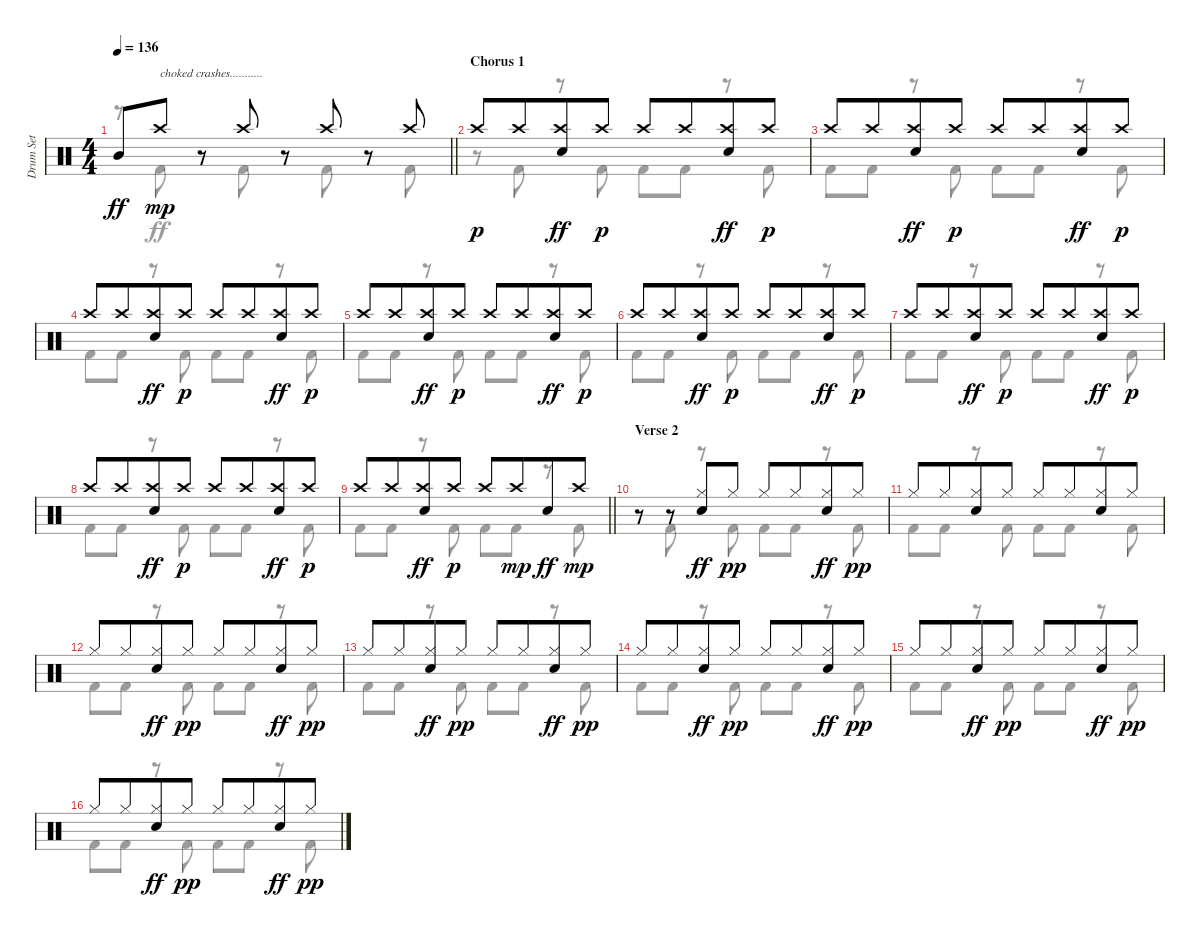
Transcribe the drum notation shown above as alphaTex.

\track ("Drum Set" "Drum Set") {instrument percussion}
\staff {score}
\articulation defaults
\voice
\ts (4 4)
\tempo 136
\clef neutral
\barLineRight lightlight
\ks c "Mid Tom (hit)".8{dy ff} "Crash high (hit)".8{txt "choked crashes..........." dy mp}
r.8 "Crash high (hit)".8 r.8 "Crash high (hit)".8 r.8 "Crash high (hit)".8 |
\section ("" "Chorus 1")
"Crash high (hit)".8{dy p} "Crash high (hit)".8{beam merge} ("Crash high (hit)" "Electric Snare (hit)").8{dy ff} "Crash high (hit)".8{dy p} "Crash high (hit)".8 "Crash high (hit)".8{beam merge} ("Crash high (hit)" "Electric Snare (hit)").8{dy ff} "Crash high (hit)".8{dy p} |
"Crash high (hit)".8 "Crash high (hit)".8{beam merge} ("Crash high (hit)" "Electric Snare (hit)").8{dy ff} "Crash high (hit)".8{dy p} "Crash high (hit)".8 "Crash high (hit)".8{beam merge} ("Crash high (hit)" "Electric Snare (hit)").8{dy ff} "Crash high (hit)".8{dy p} |
"Crash high (hit)".8 "Crash high (hit)".8{beam merge} ("Crash high (hit)" "Electric Snare (hit)").8{dy ff} "Crash high (hit)".8{dy p} "Crash high (hit)".8 "Crash high (hit)".8{beam merge} ("Crash high (hit)" "Electric Snare (hit)").8{dy ff} "Crash high (hit)".8{dy p} |
"Crash high (hit)".8 "Crash high (hit)".8{beam merge} ("Crash high (hit)" "Electric Snare (hit)").8{dy ff} "Crash high (hit)".8{dy p} "Crash high (hit)".8 "Crash high (hit)".8{beam merge} ("Crash high (hit)" "Electric Snare (hit)").8{dy ff} "Crash high (hit)".8{dy p} |
"Crash high (hit)".8 "Crash high (hit)".8{beam merge} ("Crash high (hit)" "Electric Snare (hit)").8{dy ff} "Crash high (hit)".8{dy p} "Crash high (hit)".8 "Crash high (hit)".8{beam merge} ("Crash high (hit)" "Electric Snare (hit)").8{dy ff} "Crash high (hit)".8{dy p} |
"Crash high (hit)".8 "Crash high (hit)".8{beam merge} ("Crash high (hit)" "Electric Snare (hit)").8{dy ff} "Crash high (hit)".8{dy p} "Crash high (hit)".8 "Crash high (hit)".8{beam merge} ("Crash high (hit)" "Electric Snare (hit)").8{dy ff} "Crash high (hit)".8{dy p} |
"Crash high (hit)".8 "Crash high (hit)".8{beam merge} ("Crash high (hit)" "Electric Snare (hit)").8{dy ff} "Crash high (hit)".8{dy p} "Crash high (hit)".8 "Crash high (hit)".8{beam merge} ("Crash high (hit)" "Electric Snare (hit)").8{dy ff} "Crash high (hit)".8{dy p} |
\barLineRight lightlight "Crash high (hit)".8 "Crash high (hit)".8{beam merge}
("Crash high (hit)" "Electric Snare (hit)").8{dy ff} "Crash high (hit)".8{dy p} "Crash high (hit)".8 "Crash high (hit)".8{dy mp beam merge} "Electric Snare (hit)".8{dy ff} "Crash high (hit)".8{dy mp} |
\section ("" "Verse 2")
r.8 r.8 ("Hi-Hat (closed)" "Electric Snare (hit)").8{dy ff} "Hi-Hat (closed)".8{dy pp} "Hi-Hat (closed)".8 "Hi-Hat (closed)".8{beam merge} ("Hi-Hat (closed)" "Electric Snare (hit)").8{dy ff} "Hi-Hat (closed)".8{dy pp} |
"Hi-Hat (closed)".8 "Hi-Hat (closed)".8{beam merge} ("Electric Snare (hit)" "Hi-Hat (closed)").8 "Hi-Hat (closed)".8 "Hi-Hat (closed)".8 "Hi-Hat (closed)".8{beam merge} ("Electric Snare (hit)" "Hi-Hat (closed)").8 "Hi-Hat (closed)".8 |
"Hi-Hat (closed)".8 "Hi-Hat (closed)".8{beam merge} ("Hi-Hat (closed)" "Electric Snare (hit)").8{dy ff} "Hi-Hat (closed)".8{dy pp} "Hi-Hat (closed)".8 "Hi-Hat (closed)".8{beam merge} ("Hi-Hat (closed)" "Electric Snare (hit)").8{dy ff} "Hi-Hat (closed)".8{dy pp} |
"Hi-Hat (closed)".8 "Hi-Hat (closed)".8{beam merge} ("Hi-Hat (closed)" "Electric Snare (hit)").8{dy ff} "Hi-Hat (closed)".8{dy pp} "Hi-Hat (closed)".8 "Hi-Hat (closed)".8{beam merge} ("Hi-Hat (closed)" "Electric Snare (hit)").8{dy ff} "Hi-Hat (closed)".8{dy pp} |
"Hi-Hat (closed)".8 "Hi-Hat (closed)".8{beam merge} ("Hi-Hat (closed)" "Electric Snare (hit)").8{dy ff} "Hi-Hat (closed)".8{dy pp} "Hi-Hat (closed)".8 "Hi-Hat (closed)".8{beam merge} ("Hi-Hat (closed)" "Electric Snare (hit)").8{dy ff} "Hi-Hat (closed)".8{dy pp} |
"Hi-Hat (closed)".8 "Hi-Hat (closed)".8{beam merge} ("Hi-Hat (closed)" "Electric Snare (hit)").8{dy ff} "Hi-Hat (closed)".8{dy pp} "Hi-Hat (closed)".8 "Hi-Hat (closed)".8{beam merge} ("Hi-Hat (closed)" "Electric Snare (hit)").8{dy ff} "Hi-Hat (closed)".8{dy pp} |
"Hi-Hat (closed)".8 "Hi-Hat (closed)".8{beam merge} ("Hi-Hat (closed)" "Electric Snare (hit)").8{dy ff} "Hi-Hat (closed)".8{dy pp} "Hi-Hat (closed)".8 "Hi-Hat (closed)".8{beam merge} ("Hi-Hat (closed)" "Electric Snare (hit)").8{dy ff} "Hi-Hat (closed)".8{dy pp}
\voice
\clef neutral
\ottava regular
\simile none
\barLineRight lightlight
\ks c
r.8{dy ff} "Kick (hit) 2".8 r.8 "Kick (hit) 2".8 r.8 "Kick (hit) 2".8 r.8 "Kick (hit) 2".8 |
r.8 "Kick (hit) 2".8 r.8 "Kick (hit) 2".8 "Kick (hit) 2".8 "Kick (hit) 2".8 r.8 "Kick (hit) 2".8 |
"Kick (hit) 2".8 "Kick (hit) 2".8 r.8 "Kick (hit) 2".8 "Kick (hit) 2".8 "Kick (hit) 2".8 r.8 "Kick (hit) 2".8 |
"Kick (hit) 2".8 "Kick (hit) 2".8 r.8 "Kick (hit) 2".8 "Kick (hit) 2".8 "Kick (hit) 2".8 r.8 "Kick (hit) 2".8 |
"Kick (hit) 2".8 "Kick (hit) 2".8 r.8 "Kick (hit) 2".8 "Kick (hit) 2".8 "Kick (hit) 2".8 r.8 "Kick (hit) 2".8 |
"Kick (hit) 2".8 "Kick (hit) 2".8 r.8 "Kick (hit) 2".8 "Kick (hit) 2".8 "Kick (hit) 2".8 r.8 "Kick (hit) 2".8 |
"Kick (hit) 2".8 "Kick (hit) 2".8 r.8 "Kick (hit) 2".8 "Kick (hit) 2".8 "Kick (hit) 2".8 r.8 "Kick (hit) 2".8 |
"Kick (hit) 2".8 "Kick (hit) 2".8 r.8 "Kick (hit) 2".8 "Kick (hit) 2".8 "Kick (hit) 2".8 r.8 "Kick (hit) 2".8 |
\barLineRight lightlight "Kick (hit) 2".8 "Kick (hit) 2".8
r.8 "Kick (hit) 2".8 "Kick (hit) 2".8 "Kick (hit) 2".8 r.8 "Kick (hit) 2".8 |
r.8 "Kick (hit) 2".8 r.8 "Kick (hit) 2".8 "Kick (hit) 2".8 "Kick (hit) 2".8 r.8 "Kick (hit) 2".8 |
"Kick (hit) 2".8 "Kick (hit) 2".8 r.8 "Kick (hit) 2".8 "Kick (hit) 2".8 "Kick (hit) 2".8 r.8 "Kick (hit) 2".8 |
"Kick (hit) 2".8 "Kick (hit) 2".8 r.8 "Kick (hit) 2".8 "Kick (hit) 2".8 "Kick (hit) 2".8 r.8 "Kick (hit) 2".8 |
"Kick (hit) 2".8 "Kick (hit) 2".8 r.8 "Kick (hit) 2".8 "Kick (hit) 2".8 "Kick (hit) 2".8 r.8 "Kick (hit) 2".8 |
"Kick (hit) 2".8 "Kick (hit) 2".8 r.8 "Kick (hit) 2".8 "Kick (hit) 2".8 "Kick (hit) 2".8 r.8 "Kick (hit) 2".8 |
"Kick (hit) 2".8 "Kick (hit) 2".8 r.8 "Kick (hit) 2".8 "Kick (hit) 2".8 "Kick (hit) 2".8 r.8 "Kick (hit) 2".8 |
"Kick (hit) 2".8 "Kick (hit) 2".8 r.8 "Kick (hit) 2".8 "Kick (hit) 2".8 "Kick (hit) 2".8 r.8 "Kick (hit) 2".8
